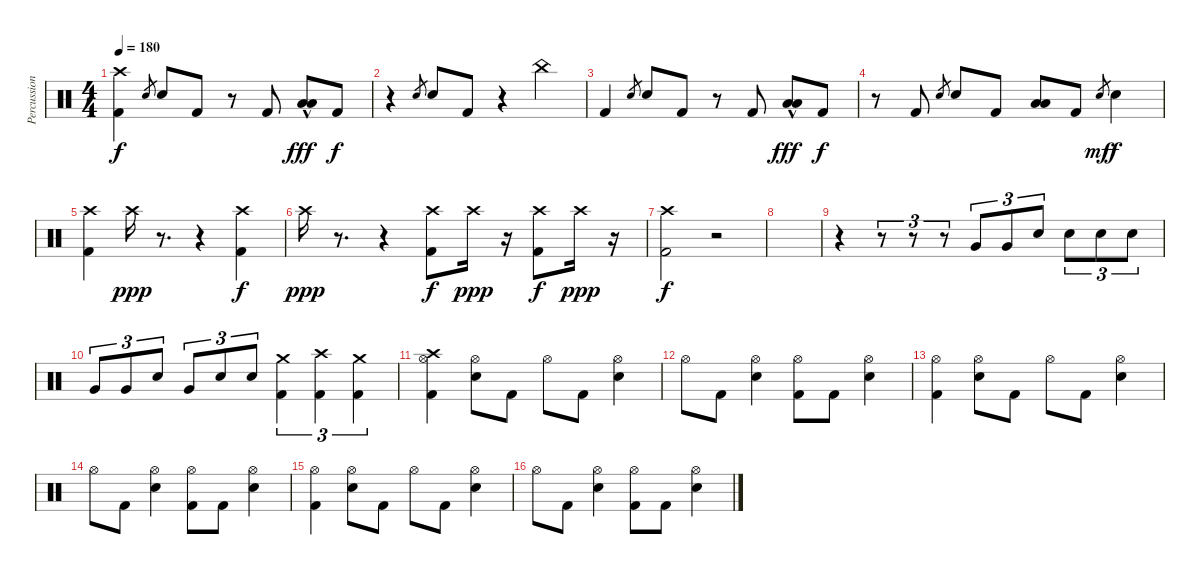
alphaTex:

\track ("Percussion" "Percussion") {instrument percussion}
\staff {score}
\articulation defaults
\ts (4 4)
\tempo 180
\clef neutral
\ks c
("Crash high (hit)" "Kick (hit) 2").4{dy f} "Electric Snare (hit)".8{gr} "Electric Snare (hit)".8 "Kick (hit) 2".8 r.8 "Kick (hit) 2".8 ("Low Tom (hit)" "Low Floor Tom (hit)"{hac}).8{dy fff} "Kick (hit) 2".8{dy f} |
r.4 "Electric Snare (hit)".8{gr} "Electric Snare (hit)".8 "Kick (hit) 2".8 r.4 "China (hit)".4 |
"Kick (hit) 2".4 "Electric Snare (hit)".8{gr} "Electric Snare (hit)".8 "Kick (hit) 2".8 r.8 "Kick (hit) 2".8 ("Low Tom (hit)" "Low Floor Tom (hit)"{hac}).8{dy fff} "Kick (hit) 2".8{dy f} |
r.8 "Kick (hit) 2".8 "Electric Snare (hit)".8{gr} "Electric Snare (hit)".8 "Kick (hit) 2".8 ("Low Tom (hit)" "Low Floor Tom (hit)").8 "Kick (hit) 2".8 "Electric Snare (hit)".8{gr dy mf} "Electric Snare (hit)".4{dy f} |
("Crash high (hit)" "Kick (hit) 2").4 "Crash high (hit)".16{dy ppp} r.8{d} r.4 ("Crash high (hit)" "Kick (hit) 2").4{dy f} |
"Crash high (hit)".16{dy ppp} r.8{d} r.4 ("Crash high (hit)" "Kick (hit) 2").8{dy f} "Crash high (hit)".16{dy ppp} r.16 ("Crash high (hit)" "Kick (hit) 2").8{dy f} "Crash high (hit)".16{dy ppp} r.16 |
("Crash high (hit)" "Kick (hit) 2").2{dy f} r.2 |
|
r.4 r.8{tu (3 2)} r.8{tu (3 2)} r.8{tu (3 2)} "Very Low Tom (hit)".8{tu (3 2)} "Very Low Tom (hit)".8{tu (3 2)} "Electric Snare (hit)".8{tu (3 2)} "Electric Snare (hit)".8{tu (3 2)} "Electric Snare (hit)".8{tu (3 2)} "Electric Snare (hit)".8{tu (3 2)} |
"Very Low Tom (hit)".8{tu (3 2)} "Very Low Tom (hit)".8{tu (3 2)} "Electric Snare (hit)".8{tu (3 2)} "Very Low Tom (hit)".8{tu (3 2)} "Electric Snare (hit)".8{tu (3 2)} "Electric Snare (hit)".8{tu (3 2)} ("Crash medium (hit)" "Kick (hit) 2").4{tu (3 2)} ("Crash high (hit)" "Kick (hit) 2").4{tu (3 2)} ("Crash medium (hit)" "Kick (hit) 2").4{tu (3 2)} |
("Hi-Hat (open)" "Crash high (hit)" "Kick (hit) 2").4 ("Hi-Hat (open)" "Electric Snare (hit)").8 "Kick (hit) 2".8 "Hi-Hat (open)".8 "Kick (hit) 2".8 ("Hi-Hat (open)" "Electric Snare (hit)").4 |
"Hi-Hat (open)".8 "Kick (hit) 2".8 ("Hi-Hat (open)" "Electric Snare (hit)").4 ("Hi-Hat (open)" "Kick (hit) 2").8 "Kick (hit) 2".8 ("Hi-Hat (open)" "Electric Snare (hit)").4 |
("Hi-Hat (open)" "Kick (hit) 2").4 ("Hi-Hat (open)" "Electric Snare (hit)").8 "Kick (hit) 2".8 "Hi-Hat (open)".8 "Kick (hit) 2".8 ("Hi-Hat (open)" "Electric Snare (hit)").4 |
"Hi-Hat (open)".8 "Kick (hit) 2".8 ("Hi-Hat (open)" "Electric Snare (hit)").4 ("Hi-Hat (open)" "Kick (hit) 2").8 "Kick (hit) 2".8 ("Hi-Hat (open)" "Electric Snare (hit)").4 |
("Hi-Hat (open)" "Kick (hit) 2").4 ("Hi-Hat (open)" "Electric Snare (hit)").8 "Kick (hit) 2".8 "Hi-Hat (open)".8 "Kick (hit) 2".8 ("Hi-Hat (open)" "Electric Snare (hit)").4 |
"Hi-Hat (open)".8 "Kick (hit) 2".8 ("Hi-Hat (open)" "Electric Snare (hit)").4 ("Hi-Hat (open)" "Kick (hit) 2").8 "Kick (hit) 2".8 ("Hi-Hat (open)" "Electric Snare (hit)").4
